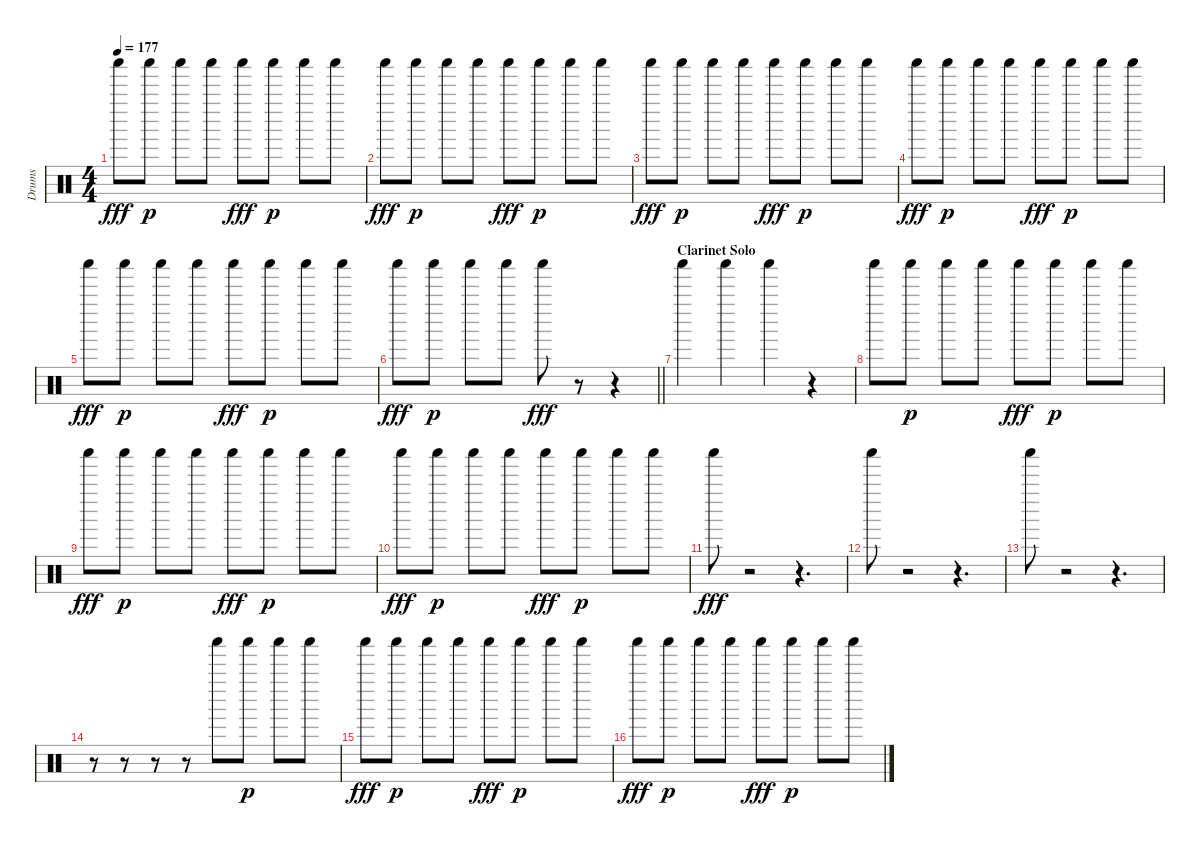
\track ("Drums" "Drums") {instrument percussion}
\staff {score}
\articulation defaults
\ts (4 4)
\tempo 177
\clef neutral
\ks c "Shaker (hit)".8{dy fff} "Shaker (hit)".8{dy p} "Shaker (hit)".8 "Shaker (hit)".8 "Shaker (hit)".8{dy fff} "Shaker (hit)".8{dy p} "Shaker (hit)".8 "Shaker (hit)".8
|
"Shaker (hit)".8{dy fff} "Shaker (hit)".8{dy p} "Shaker (hit)".8 "Shaker (hit)".8 "Shaker (hit)".8{dy fff} "Shaker (hit)".8{dy p} "Shaker (hit)".8 "Shaker (hit)".8 |
"Shaker (hit)".8{dy fff} "Shaker (hit)".8{dy p} "Shaker (hit)".8 "Shaker (hit)".8 "Shaker (hit)".8{dy fff} "Shaker (hit)".8{dy p} "Shaker (hit)".8 "Shaker (hit)".8 |
"Shaker (hit)".8{dy fff} "Shaker (hit)".8{dy p} "Shaker (hit)".8 "Shaker (hit)".8 "Shaker (hit)".8{dy fff} "Shaker (hit)".8{dy p} "Shaker (hit)".8 "Shaker (hit)".8 |
"Shaker (hit)".8{dy fff} "Shaker (hit)".8{dy p} "Shaker (hit)".8 "Shaker (hit)".8 "Shaker (hit)".8{dy fff} "Shaker (hit)".8{dy p} "Shaker (hit)".8 "Shaker (hit)".8 |
\barLineRight lightlight "Shaker (hit)".8{dy fff} "Shaker (hit)".8{dy p} "Shaker (hit)".8 "Shaker (hit)".8 "Shaker (hit)".8{dy fff}
r.8 r.4 |
\section ("" "Clarinet Solo")
"Shaker (hit)".4 "Shaker (hit)".4 "Shaker (hit)".4 r.4 |
"Shaker (hit)".8 "Shaker (hit)".8{dy p} "Shaker (hit)".8 "Shaker (hit)".8 "Shaker (hit)".8{dy fff} "Shaker (hit)".8{dy p} "Shaker (hit)".8 "Shaker (hit)".8 |
"Shaker (hit)".8{dy fff} "Shaker (hit)".8{dy p} "Shaker (hit)".8 "Shaker (hit)".8 "Shaker (hit)".8{dy fff} "Shaker (hit)".8{dy p} "Shaker (hit)".8 "Shaker (hit)".8 |
"Shaker (hit)".8{dy fff} "Shaker (hit)".8{dy p} "Shaker (hit)".8 "Shaker (hit)".8 "Shaker (hit)".8{dy fff} "Shaker (hit)".8{dy p} "Shaker (hit)".8 "Shaker (hit)".8 |
"Shaker (hit)".8{dy fff} r.2 r.4{d} |
"Shaker (hit)".8 r.2 r.4{d} |
"Shaker (hit)".8 r.2 r.4{d} |
r.8 r.8 r.8 r.8 "Shaker (hit)".8 "Shaker (hit)".8{dy p} "Shaker (hit)".8 "Shaker (hit)".8 |
"Shaker (hit)".8{dy fff} "Shaker (hit)".8{dy p} "Shaker (hit)".8 "Shaker (hit)".8 "Shaker (hit)".8{dy fff} "Shaker (hit)".8{dy p} "Shaker (hit)".8 "Shaker (hit)".8 |
"Shaker (hit)".8{dy fff} "Shaker (hit)".8{dy p} "Shaker (hit)".8 "Shaker (hit)".8 "Shaker (hit)".8{dy fff} "Shaker (hit)".8{dy p} "Shaker (hit)".8 "Shaker (hit)".8
